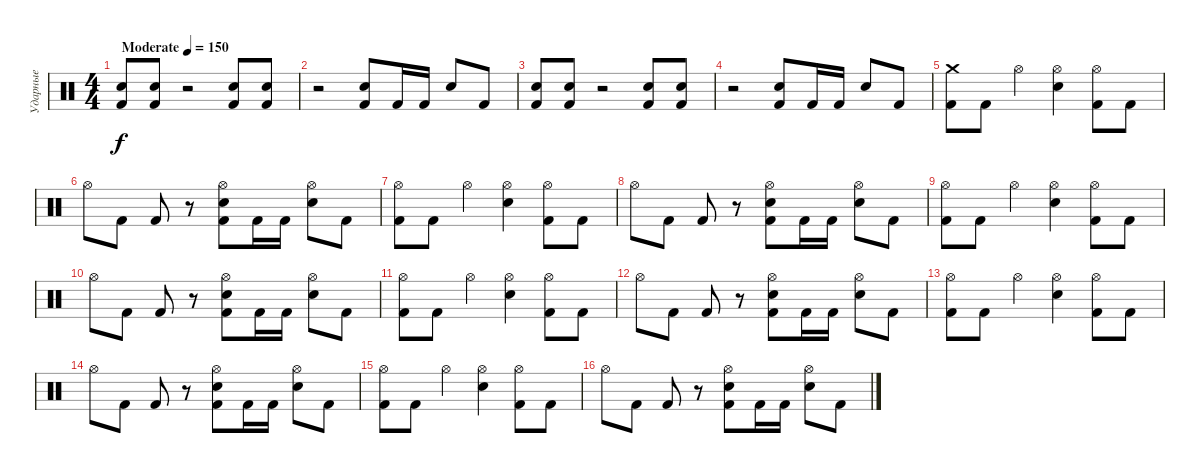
\track ("Ударные" "Ударные") {instrument percussion}
\staff {score}
\articulation defaults
\ts (4 4)
\tempo (150 "Moderate")
\clef neutral
\ks c
("Electric Snare (hit)" "Kick (hit) 2").8{dy f} ("Electric Snare (hit)" "Kick (hit) 2").8 r.2 ("Electric Snare (hit)" "Kick (hit) 2").8 ("Electric Snare (hit)" "Kick (hit) 2").8 |
r.2 ("Electric Snare (hit)" "Kick (hit) 2").8 "Kick (hit) 2".16 "Kick (hit) 2".16 "Electric Snare (hit)".8 "Kick (hit) 2".8 |
("Electric Snare (hit)" "Kick (hit) 2").8 ("Electric Snare (hit)" "Kick (hit) 2").8 r.2 ("Electric Snare (hit)" "Kick (hit) 2").8 ("Electric Snare (hit)" "Kick (hit) 2").8 |
r.2 ("Electric Snare (hit)" "Kick (hit) 2").8 "Kick (hit) 2".16 "Kick (hit) 2".16 "Electric Snare (hit)".8 "Kick (hit) 2".8 |
("Crash medium (hit)" "Kick (hit) 2").8 "Kick (hit) 2".8 "Hi-Hat (open)".4 ("Hi-Hat (open)" "Electric Snare (hit)").4 ("Hi-Hat (open)" "Kick (hit) 2").8 "Kick (hit) 2".8 |
"Hi-Hat (open)".8 "Kick (hit) 2".8 "Kick (hit) 2".8 r.8 ("Hi-Hat (open)" "Electric Snare (hit)" "Kick (hit) 2").8 "Kick (hit) 2".16 "Kick (hit) 2".16 ("Hi-Hat (open)" "Electric Snare (hit)").8 "Kick (hit) 2".8 |
("Hi-Hat (open)" "Kick (hit) 2").8 "Kick (hit) 2".8 "Hi-Hat (open)".4 ("Hi-Hat (open)" "Electric Snare (hit)").4 ("Hi-Hat (open)" "Kick (hit) 2").8 "Kick (hit) 2".8 |
"Hi-Hat (open)".8 "Kick (hit) 2".8 "Kick (hit) 2".8 r.8 ("Hi-Hat (open)" "Electric Snare (hit)" "Kick (hit) 2").8 "Kick (hit) 2".16 "Kick (hit) 2".16 ("Hi-Hat (open)" "Electric Snare (hit)").8 "Kick (hit) 2".8 |
("Hi-Hat (open)" "Kick (hit) 2").8 "Kick (hit) 2".8 "Hi-Hat (open)".4 ("Hi-Hat (open)" "Electric Snare (hit)").4 ("Hi-Hat (open)" "Kick (hit) 2").8 "Kick (hit) 2".8 |
"Hi-Hat (open)".8 "Kick (hit) 2".8 "Kick (hit) 2".8 r.8 ("Hi-Hat (open)" "Electric Snare (hit)" "Kick (hit) 2").8 "Kick (hit) 2".16 "Kick (hit) 2".16 ("Hi-Hat (open)" "Electric Snare (hit)").8 "Kick (hit) 2".8 |
("Hi-Hat (open)" "Kick (hit) 2").8 "Kick (hit) 2".8 "Hi-Hat (open)".4 ("Hi-Hat (open)" "Electric Snare (hit)").4 ("Hi-Hat (open)" "Kick (hit) 2").8 "Kick (hit) 2".8 |
"Hi-Hat (open)".8 "Kick (hit) 2".8 "Kick (hit) 2".8 r.8 ("Hi-Hat (open)" "Electric Snare (hit)" "Kick (hit) 2").8 "Kick (hit) 2".16 "Kick (hit) 2".16 ("Hi-Hat (open)" "Electric Snare (hit)").8 "Kick (hit) 2".8 |
("Hi-Hat (open)" "Kick (hit) 2").8 "Kick (hit) 2".8 "Hi-Hat (open)".4 ("Hi-Hat (open)" "Electric Snare (hit)").4 ("Hi-Hat (open)" "Kick (hit) 2").8 "Kick (hit) 2".8 |
"Hi-Hat (open)".8 "Kick (hit) 2".8 "Kick (hit) 2".8 r.8 ("Hi-Hat (open)" "Electric Snare (hit)" "Kick (hit) 2").8 "Kick (hit) 2".16 "Kick (hit) 2".16 ("Hi-Hat (open)" "Electric Snare (hit)").8 "Kick (hit) 2".8 |
("Hi-Hat (open)" "Kick (hit) 2").8 "Kick (hit) 2".8 "Hi-Hat (open)".4 ("Hi-Hat (open)" "Electric Snare (hit)").4 ("Hi-Hat (open)" "Kick (hit) 2").8 "Kick (hit) 2".8 |
"Hi-Hat (open)".8 "Kick (hit) 2".8 "Kick (hit) 2".8 r.8 ("Hi-Hat (open)" "Electric Snare (hit)" "Kick (hit) 2").8 "Kick (hit) 2".16 "Kick (hit) 2".16 ("Hi-Hat (open)" "Electric Snare (hit)").8 "Kick (hit) 2".8
